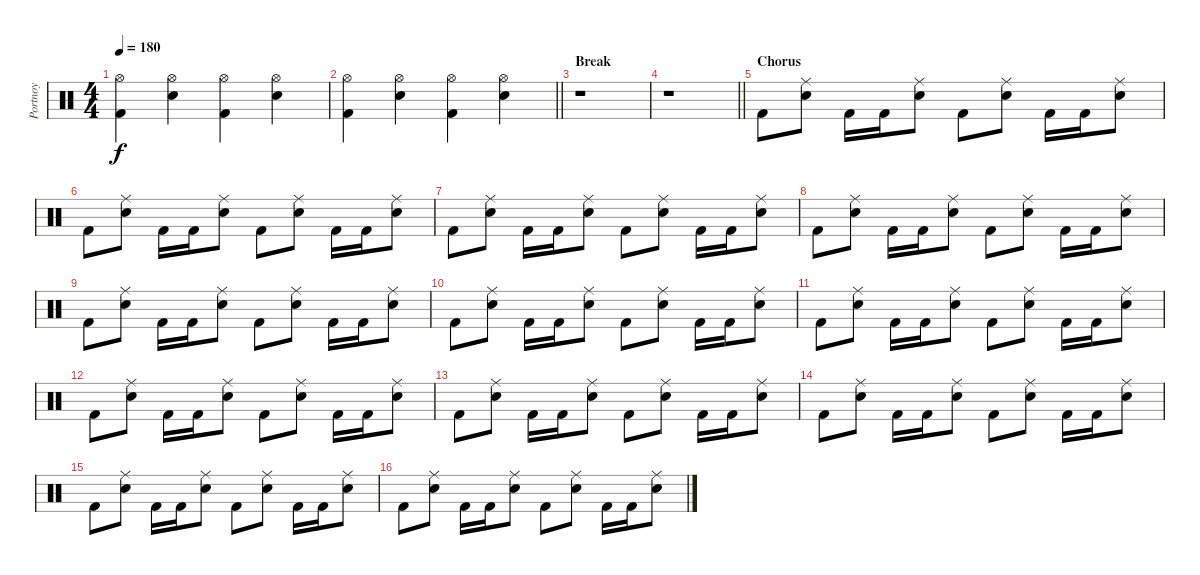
\track ("Portnoy" "Portnoy") {instrument percussion}
\staff {score}
\articulation defaults
\ts (4 4)
\tempo 180
\clef neutral
\ks c
("Hi-Hat (open)" "Kick (hit) 2").4{dy f} ("Hi-Hat (open)" "Electric Snare (hit)").4 ("Hi-Hat (open)" "Kick (hit) 2").4 ("Hi-Hat (open)" "Electric Snare (hit)").4 |
\barLineRight lightlight
("Hi-Hat (open)" "Kick (hit) 2").4 ("Hi-Hat (open)" "Electric Snare (hit)").4 ("Hi-Hat (open)" "Kick (hit) 2").4 ("Hi-Hat (open)" "Electric Snare (hit)").4 |
\section ("" "Break")
r.1 |
\barLineRight lightlight
r.1 |
\section ("" "Chorus")
"Kick (hit) 2".8 ("Ride (middle)" "Electric Snare (hit)").8 "Kick (hit) 2".16 "Kick (hit) 2".16 ("Ride (middle)" "Electric Snare (hit)").8 "Kick (hit) 2".8 ("Ride (middle)" "Electric Snare (hit)").8 "Kick (hit) 2".16 "Kick (hit) 2".16 ("Ride (middle)" "Electric Snare (hit)").8 |
"Kick (hit) 2".8 ("Ride (middle)" "Electric Snare (hit)").8 "Kick (hit) 2".16 "Kick (hit) 2".16 ("Ride (middle)" "Electric Snare (hit)").8 "Kick (hit) 2".8 ("Ride (middle)" "Electric Snare (hit)").8 "Kick (hit) 2".16 "Kick (hit) 2".16 ("Ride (middle)" "Electric Snare (hit)").8 |
"Kick (hit) 2".8 ("Ride (middle)" "Electric Snare (hit)").8 "Kick (hit) 2".16 "Kick (hit) 2".16 ("Ride (middle)" "Electric Snare (hit)").8 "Kick (hit) 2".8 ("Ride (middle)" "Electric Snare (hit)").8 "Kick (hit) 2".16 "Kick (hit) 2".16 ("Ride (middle)" "Electric Snare (hit)").8 |
"Kick (hit) 2".8 ("Ride (middle)" "Electric Snare (hit)").8 "Kick (hit) 2".16 "Kick (hit) 2".16 ("Ride (middle)" "Electric Snare (hit)").8 "Kick (hit) 2".8 ("Ride (middle)" "Electric Snare (hit)").8 "Kick (hit) 2".16 "Kick (hit) 2".16 ("Ride (middle)" "Electric Snare (hit)").8 |
"Kick (hit) 2".8 ("Ride (middle)" "Electric Snare (hit)").8 "Kick (hit) 2".16 "Kick (hit) 2".16 ("Ride (middle)" "Electric Snare (hit)").8 "Kick (hit) 2".8 ("Ride (middle)" "Electric Snare (hit)").8 "Kick (hit) 2".16 "Kick (hit) 2".16 ("Ride (middle)" "Electric Snare (hit)").8 |
"Kick (hit) 2".8 ("Ride (middle)" "Electric Snare (hit)").8 "Kick (hit) 2".16 "Kick (hit) 2".16 ("Ride (middle)" "Electric Snare (hit)").8 "Kick (hit) 2".8 ("Ride (middle)" "Electric Snare (hit)").8 "Kick (hit) 2".16 "Kick (hit) 2".16 ("Ride (middle)" "Electric Snare (hit)").8 |
"Kick (hit) 2".8 ("Ride (middle)" "Electric Snare (hit)").8 "Kick (hit) 2".16 "Kick (hit) 2".16 ("Ride (middle)" "Electric Snare (hit)").8 "Kick (hit) 2".8 ("Ride (middle)" "Electric Snare (hit)").8 "Kick (hit) 2".16 "Kick (hit) 2".16 ("Ride (middle)" "Electric Snare (hit)").8 |
"Kick (hit) 2".8 ("Ride (middle)" "Electric Snare (hit)").8 "Kick (hit) 2".16 "Kick (hit) 2".16 ("Ride (middle)" "Electric Snare (hit)").8 "Kick (hit) 2".8 ("Ride (middle)" "Electric Snare (hit)").8 "Kick (hit) 2".16 "Kick (hit) 2".16 ("Ride (middle)" "Electric Snare (hit)").8 |
"Kick (hit) 2".8 ("Ride (middle)" "Electric Snare (hit)").8 "Kick (hit) 2".16 "Kick (hit) 2".16 ("Ride (middle)" "Electric Snare (hit)").8 "Kick (hit) 2".8 ("Ride (middle)" "Electric Snare (hit)").8 "Kick (hit) 2".16 "Kick (hit) 2".16 ("Ride (middle)" "Electric Snare (hit)").8 |
"Kick (hit) 2".8 ("Ride (middle)" "Electric Snare (hit)").8 "Kick (hit) 2".16 "Kick (hit) 2".16 ("Ride (middle)" "Electric Snare (hit)").8 "Kick (hit) 2".8 ("Ride (middle)" "Electric Snare (hit)").8 "Kick (hit) 2".16 "Kick (hit) 2".16 ("Ride (middle)" "Electric Snare (hit)").8 |
"Kick (hit) 2".8 ("Ride (middle)" "Electric Snare (hit)").8 "Kick (hit) 2".16 "Kick (hit) 2".16 ("Ride (middle)" "Electric Snare (hit)").8 "Kick (hit) 2".8 ("Ride (middle)" "Electric Snare (hit)").8 "Kick (hit) 2".16 "Kick (hit) 2".16 ("Ride (middle)" "Electric Snare (hit)").8 |
"Kick (hit) 2".8 ("Ride (middle)" "Electric Snare (hit)").8 "Kick (hit) 2".16 "Kick (hit) 2".16 ("Ride (middle)" "Electric Snare (hit)").8 "Kick (hit) 2".8 ("Ride (middle)" "Electric Snare (hit)").8 "Kick (hit) 2".16 "Kick (hit) 2".16 ("Ride (middle)" "Electric Snare (hit)").8
